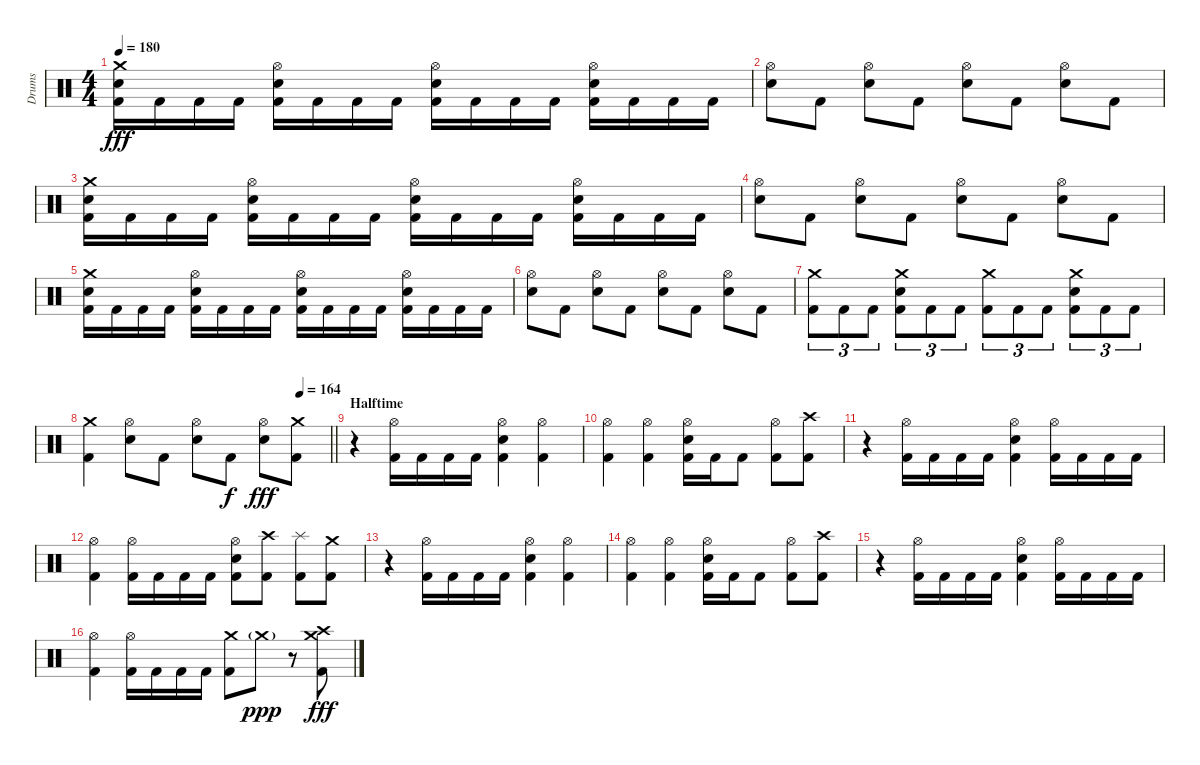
\track ("Drums" "Drums") {instrument percussion}
\staff {score}
\articulation defaults
\ts (4 4)
\tempo 180
\clef neutral
\ks c
("Crash medium (hit)" "Electric Snare (hit)" "Kick (hit) 2").16{dy fff} "Kick (hit) 2".16 "Kick (hit) 2".16 "Kick (hit) 2".16 ("Hi-Hat (open)" "Electric Snare (hit)" "Kick (hit) 2").16 "Kick (hit) 2".16 "Kick (hit) 2".16 "Kick (hit) 2".16 ("Hi-Hat (open)" "Electric Snare (hit)" "Kick (hit) 2").16 "Kick (hit) 2".16 "Kick (hit) 2".16 "Kick (hit) 2".16 ("Hi-Hat (open)" "Electric Snare (hit)" "Kick (hit) 2").16 "Kick (hit) 2".16 "Kick (hit) 2".16 "Kick (hit) 2".16 |
("Hi-Hat (open)" "Electric Snare (hit)").8 "Kick (hit) 2".8 ("Hi-Hat (open)" "Electric Snare (hit)").8 "Kick (hit) 2".8 ("Hi-Hat (open)" "Electric Snare (hit)").8 "Kick (hit) 2".8 ("Hi-Hat (open)" "Electric Snare (hit)").8 "Kick (hit) 2".8 |
("Crash medium (hit)" "Electric Snare (hit)" "Kick (hit) 2").16 "Kick (hit) 2".16 "Kick (hit) 2".16 "Kick (hit) 2".16 ("Hi-Hat (open)" "Electric Snare (hit)" "Kick (hit) 2").16 "Kick (hit) 2".16 "Kick (hit) 2".16 "Kick (hit) 2".16 ("Hi-Hat (open)" "Electric Snare (hit)" "Kick (hit) 2").16 "Kick (hit) 2".16 "Kick (hit) 2".16 "Kick (hit) 2".16 ("Hi-Hat (open)" "Electric Snare (hit)" "Kick (hit) 2").16 "Kick (hit) 2".16 "Kick (hit) 2".16 "Kick (hit) 2".16 |
("Hi-Hat (open)" "Electric Snare (hit)").8 "Kick (hit) 2".8 ("Hi-Hat (open)" "Electric Snare (hit)").8 "Kick (hit) 2".8 ("Hi-Hat (open)" "Electric Snare (hit)").8 "Kick (hit) 2".8 ("Hi-Hat (open)" "Electric Snare (hit)").8 "Kick (hit) 2".8 |
("Crash medium (hit)" "Electric Snare (hit)" "Kick (hit) 2").16 "Kick (hit) 2".16 "Kick (hit) 2".16 "Kick (hit) 2".16 ("Hi-Hat (open)" "Electric Snare (hit)" "Kick (hit) 2").16 "Kick (hit) 2".16 "Kick (hit) 2".16 "Kick (hit) 2".16 ("Hi-Hat (open)" "Electric Snare (hit)" "Kick (hit) 2").16 "Kick (hit) 2".16 "Kick (hit) 2".16 "Kick (hit) 2".16 ("Hi-Hat (open)" "Electric Snare (hit)" "Kick (hit) 2").16 "Kick (hit) 2".16 "Kick (hit) 2".16 "Kick (hit) 2".16 |
("Hi-Hat (open)" "Electric Snare (hit)").8 "Kick (hit) 2".8 ("Hi-Hat (open)" "Electric Snare (hit)").8 "Kick (hit) 2".8 ("Hi-Hat (open)" "Electric Snare (hit)").8 "Kick (hit) 2".8 ("Hi-Hat (open)" "Electric Snare (hit)").8 "Kick (hit) 2".8 |
("Crash medium (hit)" "Kick (hit) 2").8{tu (3 2)} "Kick (hit) 2".8{tu (3 2)} "Kick (hit) 2".8{tu (3 2)} ("Crash medium (hit)" "Electric Snare (hit)" "Kick (hit) 2").8{tu (3 2)} "Kick (hit) 2".8{tu (3 2)} "Kick (hit) 2".8{tu (3 2)} ("Crash medium (hit)" "Kick (hit) 2").8{tu (3 2)} "Kick (hit) 2".8{tu (3 2)} "Kick (hit) 2".8{tu (3 2)} ("Crash medium (hit)" "Electric Snare (hit)" "Kick (hit) 2").8{tu (3 2)} "Kick (hit) 2".8{tu (3 2)} "Kick (hit) 2".8{tu (3 2)} |
\tempo (164 0.875)
\barLineRight lightlight
("Crash medium (hit)" "Kick (hit) 2").4 ("Hi-Hat (open)" "Electric Snare (hit)").8 "Kick (hit) 2".8 ("Hi-Hat (open)" "Electric Snare (hit)").8 "Kick (hit) 2".8{dy f} ("Hi-Hat (open)" "Electric Snare (hit)").8{dy fff} ("Crash medium (hit)" "Kick (hit) 2").8 |
\section ("" "Halftime")
r.4 ("Hi-Hat (open)" "Kick (hit) 2").16 "Kick (hit) 2".16 "Kick (hit) 2".16 "Kick (hit) 2".16 ("Hi-Hat (open)" "Electric Snare (hit)" "Kick (hit) 2").4 ("Hi-Hat (open)" "Kick (hit) 2").4 |
("Hi-Hat (open)" "Kick (hit) 2").4 ("Hi-Hat (open)" "Kick (hit) 2").4 ("Hi-Hat (open)" "Electric Snare (hit)" "Kick (hit) 2").16 "Kick (hit) 2".16 "Kick (hit) 2".8 ("Hi-Hat (open)" "Kick (hit) 2").8 ("Crash high (hit)" "Kick (hit) 2").8 |
r.4 ("Hi-Hat (open)" "Kick (hit) 2").16 "Kick (hit) 2".16 "Kick (hit) 2".16 "Kick (hit) 2".16 ("Hi-Hat (open)" "Electric Snare (hit)" "Kick (hit) 2").4 ("Hi-Hat (open)" "Kick (hit) 2").16 "Kick (hit) 2".16 "Kick (hit) 2".16 "Kick (hit) 2".16 |
("Hi-Hat (open)" "Kick (hit) 2").4 ("Hi-Hat (open)" "Kick (hit) 2").16 "Kick (hit) 2".16 "Kick (hit) 2".16 "Kick (hit) 2".16 ("Hi-Hat (open)" "Electric Snare (hit)" "Kick (hit) 2").8 ("Crash high (hit)" "Kick (hit) 2").8 ("Splash (hit)" "Kick (hit) 2").8 ("Crash medium (hit)" "Kick (hit) 2").8 |
r.4 ("Hi-Hat (open)" "Kick (hit) 2").16 "Kick (hit) 2".16 "Kick (hit) 2".16 "Kick (hit) 2".16 ("Hi-Hat (open)" "Electric Snare (hit)" "Kick (hit) 2").4 ("Hi-Hat (open)" "Kick (hit) 2").4 |
("Hi-Hat (open)" "Kick (hit) 2").4 ("Hi-Hat (open)" "Kick (hit) 2").4 ("Hi-Hat (open)" "Electric Snare (hit)" "Kick (hit) 2").16 "Kick (hit) 2".16 "Kick (hit) 2".8 ("Hi-Hat (open)" "Kick (hit) 2").8 ("Crash high (hit)" "Kick (hit) 2").8 |
r.4 ("Hi-Hat (open)" "Kick (hit) 2").16 "Kick (hit) 2".16 "Kick (hit) 2".16 "Kick (hit) 2".16 ("Hi-Hat (open)" "Electric Snare (hit)" "Kick (hit) 2").4 ("Hi-Hat (open)" "Kick (hit) 2").16 "Kick (hit) 2".16 "Kick (hit) 2".16 "Kick (hit) 2".16 |
("Hi-Hat (open)" "Kick (hit) 2").4 ("Hi-Hat (open)" "Kick (hit) 2").16 "Kick (hit) 2".16 "Kick (hit) 2".16 "Kick (hit) 2".16 ("Crash medium (hit)" "Kick (hit) 2").8 "Crash medium (hit)"{g}.8{dy ppp} r.8 ("Crash high (hit)" "Crash medium (hit)" "Kick (hit) 2").8{dy fff}
